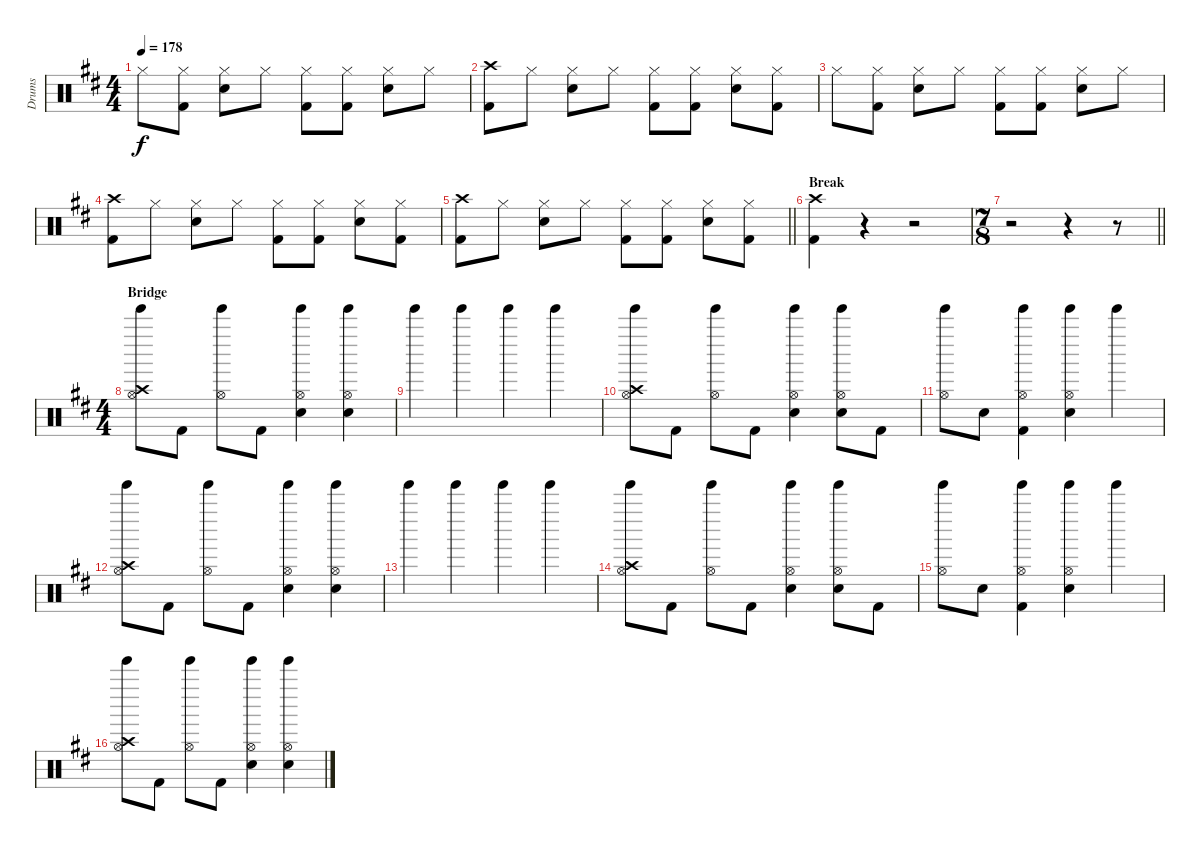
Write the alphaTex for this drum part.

\track ("Drums" "Drums") {instrument percussion}
\staff {score}
\articulation defaults
\ts (4 4)
\tempo 178
\clef neutral
\ks d "Hi-Hat (closed)".8{dy f}
("Kick (hit) 2" "Hi-Hat (closed)").8 ("Snare (hit) 2" "Hi-Hat (closed)").8 "Hi-Hat (closed)".8 ("Kick (hit) 2" "Hi-Hat (closed)").8 ("Kick (hit) 2" "Hi-Hat (closed)").8 ("Snare (hit) 2" "Hi-Hat (closed)").8 "Hi-Hat (closed)".8 |
("Kick (hit) 2" "Crash high (hit)").8 "Hi-Hat (closed)".8 ("Snare (hit) 2" "Hi-Hat (closed)").8 "Hi-Hat (closed)".8 ("Kick (hit) 2" "Hi-Hat (closed)").8 ("Kick (hit) 2" "Hi-Hat (closed)").8 ("Snare (hit) 2" "Hi-Hat (closed)").8 ("Kick (hit) 2" "Hi-Hat (closed)").8 |
"Hi-Hat (closed)".8 ("Kick (hit) 2" "Hi-Hat (closed)").8 ("Snare (hit) 2" "Hi-Hat (closed)").8 "Hi-Hat (closed)".8 ("Kick (hit) 2" "Hi-Hat (closed)").8 ("Kick (hit) 2" "Hi-Hat (closed)").8 ("Snare (hit) 2" "Hi-Hat (closed)").8 "Hi-Hat (closed)".8 |
("Kick (hit) 2" "Crash high (hit)").8 "Hi-Hat (closed)".8 ("Snare (hit) 2" "Hi-Hat (closed)").8 "Hi-Hat (closed)".8 ("Kick (hit) 2" "Hi-Hat (closed)").8 ("Kick (hit) 2" "Hi-Hat (closed)").8 ("Snare (hit) 2" "Hi-Hat (closed)").8 ("Kick (hit) 2" "Hi-Hat (closed)").8 |
\barLineRight lightlight
("Kick (hit) 2" "Crash high (hit)").8 "Hi-Hat (closed)".8 ("Snare (hit) 2" "Hi-Hat (closed)").8 "Hi-Hat (closed)".8 ("Kick (hit) 2" "Hi-Hat (closed)").8 ("Kick (hit) 2" "Hi-Hat (closed)").8 ("Snare (hit) 2" "Hi-Hat (closed)").8 ("Kick (hit) 2" "Hi-Hat (closed)").8 |
\section ("" "Break")
("Kick (hit) 2" "Crash high (hit)").4 r.4 r.2 |
\ts (7 8)
\barLineRight lightlight
r.2 r.4 r.8 |
\ts (4 4)
\section ("" "Bridge")
("Tinkle Bell (hit)" "Crash high (hit)" "Hi-Hat (open)").8 "Kick (hit) 2".8 ("Tinkle Bell (hit)" "Hi-Hat (open)").8 "Kick (hit) 2".8 ("Tinkle Bell (hit)" "Snare (hit) 2" "Hi-Hat (open)").4 ("Tinkle Bell (hit)" "Snare (hit) 2" "Hi-Hat (open)").4 |
"Tinkle Bell (hit)".4 "Tinkle Bell (hit)".4 "Tinkle Bell (hit)".4 "Tinkle Bell (hit)".4 |
("Tinkle Bell (hit)" "Crash high (hit)" "Hi-Hat (open)").8 "Kick (hit) 2".8 ("Tinkle Bell (hit)" "Hi-Hat (open)").8 "Kick (hit) 2".8 ("Tinkle Bell (hit)" "Snare (hit) 2" "Hi-Hat (open)").4 ("Tinkle Bell (hit)" "Snare (hit) 2" "Hi-Hat (open)").8 "Kick (hit) 2".8 |
("Tinkle Bell (hit)" "Hi-Hat (open)").8 "Snare (hit) 2".8 ("Kick (hit) 2" "Tinkle Bell (hit)" "Hi-Hat (open)").4 ("Tinkle Bell (hit)" "Snare (hit) 2" "Hi-Hat (open)").4 "Tinkle Bell (hit)".4 |
("Tinkle Bell (hit)" "Crash high (hit)" "Hi-Hat (open)").8 "Kick (hit) 2".8 ("Tinkle Bell (hit)" "Hi-Hat (open)").8 "Kick (hit) 2".8 ("Tinkle Bell (hit)" "Snare (hit) 2" "Hi-Hat (open)").4 ("Tinkle Bell (hit)" "Snare (hit) 2" "Hi-Hat (open)").4 |
"Tinkle Bell (hit)".4 "Tinkle Bell (hit)".4 "Tinkle Bell (hit)".4 "Tinkle Bell (hit)".4 |
("Tinkle Bell (hit)" "Crash high (hit)" "Hi-Hat (open)").8 "Kick (hit) 2".8 ("Tinkle Bell (hit)" "Hi-Hat (open)").8 "Kick (hit) 2".8 ("Tinkle Bell (hit)" "Snare (hit) 2" "Hi-Hat (open)").4 ("Tinkle Bell (hit)" "Snare (hit) 2" "Hi-Hat (open)").8 "Kick (hit) 2".8 |
("Tinkle Bell (hit)" "Hi-Hat (open)").8 "Snare (hit) 2".8 ("Kick (hit) 2" "Tinkle Bell (hit)" "Hi-Hat (open)").4 ("Tinkle Bell (hit)" "Snare (hit) 2" "Hi-Hat (open)").4 "Tinkle Bell (hit)".4 |
("Tinkle Bell (hit)" "Crash high (hit)" "Hi-Hat (open)").8 "Kick (hit) 2".8 ("Tinkle Bell (hit)" "Hi-Hat (open)").8 "Kick (hit) 2".8 ("Tinkle Bell (hit)" "Snare (hit) 2" "Hi-Hat (open)").4 ("Tinkle Bell (hit)" "Snare (hit) 2" "Hi-Hat (open)").4
